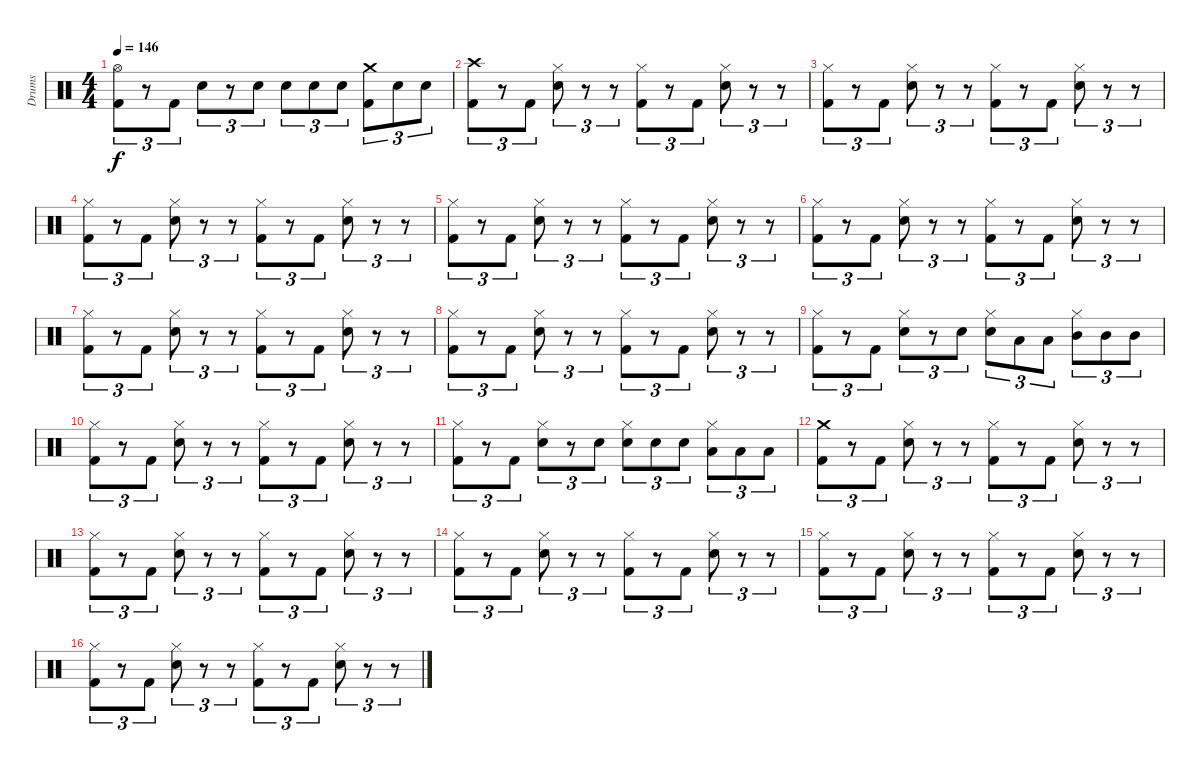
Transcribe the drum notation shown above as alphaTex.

\track ("Drums" "Drums") {instrument percussion}
\staff {score}
\articulation defaults
\ts (4 4)
\tempo 146
\clef neutral
\ks c
("Hi-Hat (open)" "Kick (hit) 2").8{tu (3 2) dy f} r.8{tu (3 2)} "Kick (hit) 2".8{tu (3 2)} "Snare (hit) 2".8{tu (3 2)} r.8{tu (3 2)} "Snare (hit) 2".8{tu (3 2)} "Snare (hit) 2".8{tu (3 2)} "Snare (hit) 2".8{tu (3 2)} "Snare (hit) 2".8{tu (3 2)} ("Crash medium (hit)" "Kick (hit) 2").8{tu (3 2)} "Snare (hit) 2".8{tu (3 2)} "Snare (hit) 2".8{tu (3 2)} |
("Crash high (hit)" "Kick (hit) 2").8{tu (3 2)} r.8{tu (3 2)} "Kick (hit) 2".8{tu (3 2)} ("Hi-Hat (closed)" "Snare (hit) 2").8{tu (3 2)} r.8{tu (3 2)} r.8{tu (3 2)} ("Hi-Hat (closed)" "Kick (hit) 2").8{tu (3 2)} r.8{tu (3 2)} "Kick (hit) 2".8{tu (3 2)} ("Hi-Hat (closed)" "Snare (hit) 2").8{tu (3 2)} r.8{tu (3 2)} r.8{tu (3 2)} |
("Hi-Hat (closed)" "Kick (hit) 2").8{tu (3 2)} r.8{tu (3 2)} "Kick (hit) 2".8{tu (3 2)} ("Hi-Hat (closed)" "Snare (hit) 2").8{tu (3 2)} r.8{tu (3 2)} r.8{tu (3 2)} ("Hi-Hat (closed)" "Kick (hit) 2").8{tu (3 2)} r.8{tu (3 2)} "Kick (hit) 2".8{tu (3 2)} ("Hi-Hat (closed)" "Snare (hit) 2").8{tu (3 2)} r.8{tu (3 2)} r.8{tu (3 2)} |
("Hi-Hat (closed)" "Kick (hit) 2").8{tu (3 2)} r.8{tu (3 2)} "Kick (hit) 2".8{tu (3 2)} ("Hi-Hat (closed)" "Snare (hit) 2").8{tu (3 2)} r.8{tu (3 2)} r.8{tu (3 2)} ("Hi-Hat (closed)" "Kick (hit) 2").8{tu (3 2)} r.8{tu (3 2)} "Kick (hit) 2".8{tu (3 2)} ("Hi-Hat (closed)" "Snare (hit) 2").8{tu (3 2)} r.8{tu (3 2)} r.8{tu (3 2)} |
("Hi-Hat (closed)" "Kick (hit) 2").8{tu (3 2)} r.8{tu (3 2)} "Kick (hit) 2".8{tu (3 2)} ("Hi-Hat (closed)" "Snare (hit) 2").8{tu (3 2)} r.8{tu (3 2)} r.8{tu (3 2)} ("Hi-Hat (closed)" "Kick (hit) 2").8{tu (3 2)} r.8{tu (3 2)} "Kick (hit) 2".8{tu (3 2)} ("Hi-Hat (closed)" "Snare (hit) 2").8{tu (3 2)} r.8{tu (3 2)} r.8{tu (3 2)} |
("Hi-Hat (closed)" "Kick (hit) 2").8{tu (3 2)} r.8{tu (3 2)} "Kick (hit) 2".8{tu (3 2)} ("Hi-Hat (closed)" "Snare (hit) 2").8{tu (3 2)} r.8{tu (3 2)} r.8{tu (3 2)} ("Hi-Hat (closed)" "Kick (hit) 2").8{tu (3 2)} r.8{tu (3 2)} "Kick (hit) 2".8{tu (3 2)} ("Hi-Hat (closed)" "Snare (hit) 2").8{tu (3 2)} r.8{tu (3 2)} r.8{tu (3 2)} |
("Hi-Hat (closed)" "Kick (hit) 2").8{tu (3 2)} r.8{tu (3 2)} "Kick (hit) 2".8{tu (3 2)} ("Hi-Hat (closed)" "Snare (hit) 2").8{tu (3 2)} r.8{tu (3 2)} r.8{tu (3 2)} ("Hi-Hat (closed)" "Kick (hit) 2").8{tu (3 2)} r.8{tu (3 2)} "Kick (hit) 2".8{tu (3 2)} ("Hi-Hat (closed)" "Snare (hit) 2").8{tu (3 2)} r.8{tu (3 2)} r.8{tu (3 2)} |
("Hi-Hat (closed)" "Kick (hit) 2").8{tu (3 2)} r.8{tu (3 2)} "Kick (hit) 2".8{tu (3 2)} ("Hi-Hat (closed)" "Snare (hit) 2").8{tu (3 2)} r.8{tu (3 2)} r.8{tu (3 2)} ("Hi-Hat (closed)" "Kick (hit) 2").8{tu (3 2)} r.8{tu (3 2)} "Kick (hit) 2".8{tu (3 2)} ("Hi-Hat (closed)" "Snare (hit) 2").8{tu (3 2)} r.8{tu (3 2)} r.8{tu (3 2)} |
("Hi-Hat (closed)" "Kick (hit) 2").8{tu (3 2)} r.8{tu (3 2)} "Kick (hit) 2".8{tu (3 2)} ("Hi-Hat (closed)" "Snare (hit) 2").8{tu (3 2)} r.8{tu (3 2)} "Snare (hit) 2".8{tu (3 2)} ("Hi-Hat (closed)" "Snare (hit) 2").8{tu (3 2)} "Low Tom (hit)".8{tu (3 2)} "Low Tom (hit)".8{tu (3 2)} ("Hi-Hat (closed)" "Mid Tom (hit)").8{tu (3 2)} "Mid Tom (hit)".8{tu (3 2)} "Mid Tom (hit)".8{tu (3 2)} |
("Hi-Hat (closed)" "Kick (hit) 2").8{tu (3 2)} r.8{tu (3 2)} "Kick (hit) 2".8{tu (3 2)} ("Hi-Hat (closed)" "Snare (hit) 2").8{tu (3 2)} r.8{tu (3 2)} r.8{tu (3 2)} ("Hi-Hat (closed)" "Kick (hit) 2").8{tu (3 2)} r.8{tu (3 2)} "Kick (hit) 2".8{tu (3 2)} ("Hi-Hat (closed)" "Snare (hit) 2").8{tu (3 2)} r.8{tu (3 2)} r.8{tu (3 2)} |
("Hi-Hat (closed)" "Kick (hit) 2").8{tu (3 2)} r.8{tu (3 2)} "Kick (hit) 2".8{tu (3 2)} ("Hi-Hat (closed)" "Snare (hit) 2").8{tu (3 2)} r.8{tu (3 2)} "Snare (hit) 2".8{tu (3 2)} ("Hi-Hat (closed)" "Snare (hit) 2").8{tu (3 2)} "Snare (hit) 2".8{tu (3 2)} "Snare (hit) 2".8{tu (3 2)} ("Hi-Hat (closed)" "Low Tom (hit)").8{tu (3 2)} "Low Tom (hit)".8{tu (3 2)} "Low Tom (hit)".8{tu (3 2)} |
("Crash medium (hit)" "Kick (hit) 2").8{tu (3 2)} r.8{tu (3 2)} "Kick (hit) 2".8{tu (3 2)} ("Hi-Hat (closed)" "Snare (hit) 2").8{tu (3 2)} r.8{tu (3 2)} r.8{tu (3 2)} ("Hi-Hat (closed)" "Kick (hit) 2").8{tu (3 2)} r.8{tu (3 2)} "Kick (hit) 2".8{tu (3 2)} ("Hi-Hat (closed)" "Snare (hit) 2").8{tu (3 2)} r.8{tu (3 2)} r.8{tu (3 2)} |
("Hi-Hat (closed)" "Kick (hit) 2").8{tu (3 2)} r.8{tu (3 2)} "Kick (hit) 2".8{tu (3 2)} ("Hi-Hat (closed)" "Snare (hit) 2").8{tu (3 2)} r.8{tu (3 2)} r.8{tu (3 2)} ("Hi-Hat (closed)" "Kick (hit) 2").8{tu (3 2)} r.8{tu (3 2)} "Kick (hit) 2".8{tu (3 2)} ("Hi-Hat (closed)" "Snare (hit) 2").8{tu (3 2)} r.8{tu (3 2)} r.8{tu (3 2)} |
("Hi-Hat (closed)" "Kick (hit) 2").8{tu (3 2)} r.8{tu (3 2)} "Kick (hit) 2".8{tu (3 2)} ("Hi-Hat (closed)" "Snare (hit) 2").8{tu (3 2)} r.8{tu (3 2)} r.8{tu (3 2)} ("Hi-Hat (closed)" "Kick (hit) 2").8{tu (3 2)} r.8{tu (3 2)} "Kick (hit) 2".8{tu (3 2)} ("Hi-Hat (closed)" "Snare (hit) 2").8{tu (3 2)} r.8{tu (3 2)} r.8{tu (3 2)} |
("Hi-Hat (closed)" "Kick (hit) 2").8{tu (3 2)} r.8{tu (3 2)} "Kick (hit) 2".8{tu (3 2)} ("Hi-Hat (closed)" "Snare (hit) 2").8{tu (3 2)} r.8{tu (3 2)} r.8{tu (3 2)} ("Hi-Hat (closed)" "Kick (hit) 2").8{tu (3 2)} r.8{tu (3 2)} "Kick (hit) 2".8{tu (3 2)} ("Hi-Hat (closed)" "Snare (hit) 2").8{tu (3 2)} r.8{tu (3 2)} r.8{tu (3 2)} |
("Hi-Hat (closed)" "Kick (hit) 2").8{tu (3 2)} r.8{tu (3 2)} "Kick (hit) 2".8{tu (3 2)} ("Hi-Hat (closed)" "Snare (hit) 2").8{tu (3 2)} r.8{tu (3 2)} r.8{tu (3 2)} ("Hi-Hat (closed)" "Kick (hit) 2").8{tu (3 2)} r.8{tu (3 2)} "Kick (hit) 2".8{tu (3 2)} ("Hi-Hat (closed)" "Snare (hit) 2").8{tu (3 2)} r.8{tu (3 2)} r.8{tu (3 2)}
